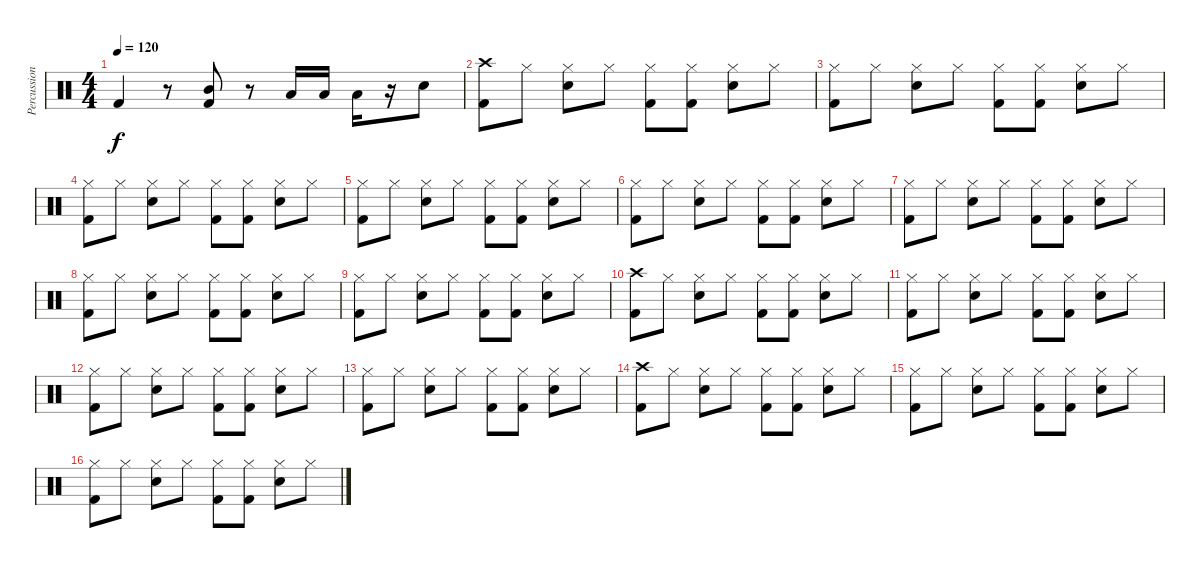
\track ("Percussion" "Percussion") {instrument percussion}
\staff {score}
\articulation defaults
\ts (4 4)
\tempo 120
\clef neutral
\ks c "Kick (hit) 2".4{dy f}
r.8 ("Mid Tom (hit)" "Kick (hit) 2").8 r.8 "Low Tom (hit)".16 "Low Tom (hit)".16 "Low Tom (hit)".16 r.16 "Electric Snare (hit)".8 |
("Crash high (hit)" "Kick (hit) 2").8 "Hi-Hat (closed)".8 ("Hi-Hat (closed)" "Electric Snare (hit)").8 "Hi-Hat (closed)".8 ("Hi-Hat (closed)" "Kick (hit) 2").8 ("Hi-Hat (closed)" "Kick (hit) 2").8 ("Hi-Hat (closed)" "Electric Snare (hit)").8 "Hi-Hat (closed)".8 |
("Hi-Hat (closed)" "Kick (hit) 2").8 "Hi-Hat (closed)".8 ("Hi-Hat (closed)" "Electric Snare (hit)").8 "Hi-Hat (closed)".8 ("Hi-Hat (closed)" "Kick (hit) 2").8 ("Hi-Hat (closed)" "Kick (hit) 2").8 ("Hi-Hat (closed)" "Electric Snare (hit)").8 "Hi-Hat (closed)".8 |
("Hi-Hat (closed)" "Kick (hit) 2").8 "Hi-Hat (closed)".8 ("Hi-Hat (closed)" "Electric Snare (hit)").8 "Hi-Hat (closed)".8 ("Hi-Hat (closed)" "Kick (hit) 2").8 ("Hi-Hat (closed)" "Kick (hit) 2").8 ("Hi-Hat (closed)" "Electric Snare (hit)").8 "Hi-Hat (closed)".8 |
("Hi-Hat (closed)" "Kick (hit) 2").8 "Hi-Hat (closed)".8 ("Hi-Hat (closed)" "Electric Snare (hit)").8 "Hi-Hat (closed)".8 ("Hi-Hat (closed)" "Kick (hit) 2").8 ("Hi-Hat (closed)" "Kick (hit) 2").8 ("Hi-Hat (closed)" "Electric Snare (hit)").8 "Hi-Hat (closed)".8 |
("Hi-Hat (closed)" "Kick (hit) 2").8 "Hi-Hat (closed)".8 ("Hi-Hat (closed)" "Electric Snare (hit)").8 "Hi-Hat (closed)".8 ("Hi-Hat (closed)" "Kick (hit) 2").8 ("Hi-Hat (closed)" "Kick (hit) 2").8 ("Hi-Hat (closed)" "Electric Snare (hit)").8 "Hi-Hat (closed)".8 |
("Hi-Hat (closed)" "Kick (hit) 2").8 "Hi-Hat (closed)".8 ("Hi-Hat (closed)" "Electric Snare (hit)").8 "Hi-Hat (closed)".8 ("Hi-Hat (closed)" "Kick (hit) 2").8 ("Hi-Hat (closed)" "Kick (hit) 2").8 ("Hi-Hat (closed)" "Electric Snare (hit)").8 "Hi-Hat (closed)".8 |
("Hi-Hat (closed)" "Kick (hit) 2").8 "Hi-Hat (closed)".8 ("Hi-Hat (closed)" "Electric Snare (hit)").8 "Hi-Hat (closed)".8 ("Hi-Hat (closed)" "Kick (hit) 2").8 ("Hi-Hat (closed)" "Kick (hit) 2").8 ("Hi-Hat (closed)" "Electric Snare (hit)").8 "Hi-Hat (closed)".8 |
("Hi-Hat (closed)" "Kick (hit) 2").8 "Hi-Hat (closed)".8 ("Hi-Hat (closed)" "Electric Snare (hit)").8 "Hi-Hat (closed)".8 ("Hi-Hat (closed)" "Kick (hit) 2").8 ("Hi-Hat (closed)" "Kick (hit) 2").8 ("Hi-Hat (closed)" "Electric Snare (hit)").8 "Hi-Hat (closed)".8 |
("Crash high (hit)" "Kick (hit) 2").8 "Hi-Hat (closed)".8 ("Hi-Hat (closed)" "Electric Snare (hit)").8 "Hi-Hat (closed)".8 ("Hi-Hat (closed)" "Kick (hit) 2").8 ("Hi-Hat (closed)" "Kick (hit) 2").8 ("Hi-Hat (closed)" "Electric Snare (hit)").8 "Hi-Hat (closed)".8 |
("Hi-Hat (closed)" "Kick (hit) 2").8 "Hi-Hat (closed)".8 ("Hi-Hat (closed)" "Electric Snare (hit)").8 "Hi-Hat (closed)".8 ("Hi-Hat (closed)" "Kick (hit) 2").8 ("Hi-Hat (closed)" "Kick (hit) 2").8 ("Hi-Hat (closed)" "Electric Snare (hit)").8 "Hi-Hat (closed)".8 |
("Hi-Hat (closed)" "Kick (hit) 2").8 "Hi-Hat (closed)".8 ("Hi-Hat (closed)" "Electric Snare (hit)").8 "Hi-Hat (closed)".8 ("Hi-Hat (closed)" "Kick (hit) 2").8 ("Hi-Hat (closed)" "Kick (hit) 2").8 ("Hi-Hat (closed)" "Electric Snare (hit)").8 "Hi-Hat (closed)".8 |
("Hi-Hat (closed)" "Kick (hit) 2").8 "Hi-Hat (closed)".8 ("Hi-Hat (closed)" "Electric Snare (hit)").8 "Hi-Hat (closed)".8 ("Hi-Hat (closed)" "Kick (hit) 2").8 ("Hi-Hat (closed)" "Kick (hit) 2").8 ("Hi-Hat (closed)" "Electric Snare (hit)").8 "Hi-Hat (closed)".8 |
("Crash high (hit)" "Kick (hit) 2").8 "Hi-Hat (closed)".8 ("Hi-Hat (closed)" "Electric Snare (hit)").8 "Hi-Hat (closed)".8 ("Hi-Hat (closed)" "Kick (hit) 2").8 ("Hi-Hat (closed)" "Kick (hit) 2").8 ("Hi-Hat (closed)" "Electric Snare (hit)").8 "Hi-Hat (closed)".8 |
("Hi-Hat (closed)" "Kick (hit) 2").8 "Hi-Hat (closed)".8 ("Hi-Hat (closed)" "Electric Snare (hit)").8 "Hi-Hat (closed)".8 ("Hi-Hat (closed)" "Kick (hit) 2").8 ("Hi-Hat (closed)" "Kick (hit) 2").8 ("Hi-Hat (closed)" "Electric Snare (hit)").8 "Hi-Hat (closed)".8 |
("Hi-Hat (closed)" "Kick (hit) 2").8 "Hi-Hat (closed)".8 ("Hi-Hat (closed)" "Electric Snare (hit)").8 "Hi-Hat (closed)".8 ("Hi-Hat (closed)" "Kick (hit) 2").8 ("Hi-Hat (closed)" "Kick (hit) 2").8 ("Hi-Hat (closed)" "Electric Snare (hit)").8 "Hi-Hat (closed)".8
